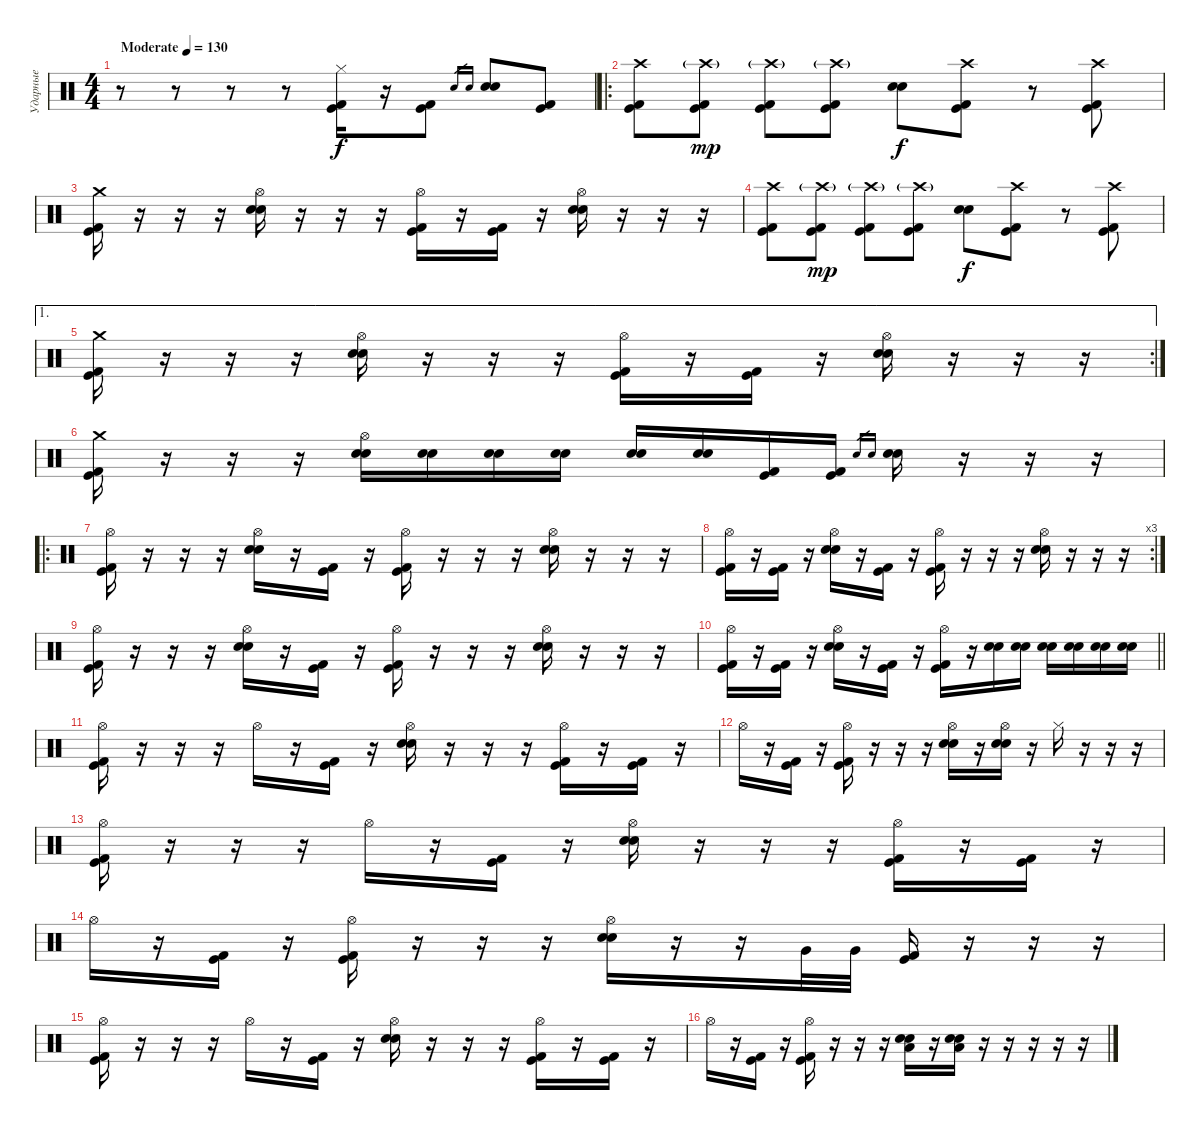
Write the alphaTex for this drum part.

\track ("Ударные" "Ударные") {instrument percussion}
\staff {score}
\articulation defaults
\ts (4 4)
\tempo (130 "Moderate")
\clef neutral
\ks c
r.8{dy f} r.8 r.8 r.8 ("Hi-Hat (closed)" "Kick (hit) 2" "Kick (hit)").16 r.16 ("Kick (hit)" "Kick (hit) 2").8 "Snare (hit) 2".16{gr} "Electric Snare (hit)".16{gr} ("Snare (hit) 2" "Electric Snare (hit)").8 ("Kick (hit)" "Kick (hit) 2").8 |
\ro
("Crash high (hit)" "Kick (hit)" "Kick (hit) 2").8 ("Crash high (hit)"{g} "Kick (hit)" "Kick (hit) 2").8{dy mp} ("Crash high (hit)"{g} "Kick (hit)" "Kick (hit) 2").8 ("Crash high (hit)"{g} "Kick (hit)" "Kick (hit) 2").8 ("Snare (hit) 2" "Electric Snare (hit)").8{dy f} ("Crash high (hit)" "Kick (hit)" "Kick (hit) 2").8 r.8 ("Crash high (hit)" "Kick (hit)" "Kick (hit) 2").8 |
("Crash medium (hit)" "Kick (hit)" "Kick (hit) 2").16 r.16 r.16 r.16 ("Hi-Hat (open)" "Snare (hit) 2" "Electric Snare (hit)").16 r.16 r.16 r.16 ("Hi-Hat (open)" "Kick (hit)" "Kick (hit) 2").16 r.16 ("Kick (hit)" "Kick (hit) 2").16 r.16 ("Hi-Hat (open)" "Electric Snare (hit)" "Snare (hit) 2").16 r.16 r.16 r.16 |
("Crash high (hit)" "Kick (hit)" "Kick (hit) 2").8 ("Crash high (hit)"{g} "Kick (hit)" "Kick (hit) 2").8{dy mp} ("Crash high (hit)"{g} "Kick (hit)" "Kick (hit) 2").8 ("Crash high (hit)"{g} "Kick (hit)" "Kick (hit) 2").8 ("Snare (hit) 2" "Electric Snare (hit)").8{dy f} ("Crash high (hit)" "Kick (hit)" "Kick (hit) 2").8 r.8 ("Crash high (hit)" "Kick (hit)" "Kick (hit) 2").8 |
\ae 1
\rc 2
("Crash medium (hit)" "Kick (hit)" "Kick (hit) 2").16 r.16 r.16 r.16 ("Hi-Hat (open)" "Snare (hit) 2" "Electric Snare (hit)").16 r.16 r.16 r.16 ("Hi-Hat (open)" "Kick (hit)" "Kick (hit) 2").16 r.16 ("Kick (hit)" "Kick (hit) 2").16 r.16 ("Hi-Hat (open)" "Electric Snare (hit)" "Snare (hit) 2").16 r.16 r.16 r.16 |
("Crash medium (hit)" "Kick (hit)" "Kick (hit) 2").16 r.16 r.16 r.16 ("Hi-Hat (open)" "Snare (hit) 2" "Electric Snare (hit)").16 ("Snare (hit) 2" "Electric Snare (hit)").16 ("Snare (hit) 2" "Electric Snare (hit)").16 ("Snare (hit) 2" "Electric Snare (hit)").16 ("Electric Snare (hit)" "Snare (hit) 2").16 ("Electric Snare (hit)" "Snare (hit) 2").16 ("Kick (hit)" "Kick (hit) 2").16 ("Kick (hit) 2" "Kick (hit)").16 "Snare (hit) 2".16{gr} "Electric Snare (hit)".16{gr} ("Snare (hit) 2" "Electric Snare (hit)").16 r.16 r.16 r.16 |
\ro
("Hi-Hat (open)" "Kick (hit)" "Kick (hit) 2").16 r.16 r.16 r.16 ("Hi-Hat (open)" "Snare (hit) 2" "Electric Snare (hit)").16 r.16 ("Kick (hit)" "Kick (hit) 2").16 r.16 ("Hi-Hat (open)" "Kick (hit)" "Kick (hit) 2").16 r.16 r.16 r.16 ("Hi-Hat (open)" "Snare (hit) 2" "Electric Snare (hit)").16 r.16 r.16 r.16 |
\rc 3
("Hi-Hat (open)" "Kick (hit)" "Kick (hit) 2").16 r.16 ("Kick (hit)" "Kick (hit) 2").16 r.16 ("Hi-Hat (open)" "Snare (hit) 2" "Electric Snare (hit)").16 r.16 ("Kick (hit)" "Kick (hit) 2").16 r.16 ("Hi-Hat (open)" "Kick (hit)" "Kick (hit) 2").16 r.16 r.16 r.16 ("Hi-Hat (open)" "Snare (hit) 2" "Electric Snare (hit)").16 r.16 r.16 r.16 |
("Hi-Hat (open)" "Kick (hit)" "Kick (hit) 2").16 r.16 r.16 r.16 ("Hi-Hat (open)" "Snare (hit) 2" "Electric Snare (hit)").16 r.16 ("Kick (hit)" "Kick (hit) 2").16 r.16 ("Hi-Hat (open)" "Kick (hit)" "Kick (hit) 2").16 r.16 r.16 r.16 ("Hi-Hat (open)" "Snare (hit) 2" "Electric Snare (hit)").16 r.16 r.16 r.16 |
\barLineRight lightlight
("Hi-Hat (open)" "Kick (hit)" "Kick (hit) 2").16 r.16 ("Kick (hit)" "Kick (hit) 2").16 r.16 ("Hi-Hat (open)" "Snare (hit) 2" "Electric Snare (hit)").16 r.16 ("Kick (hit)" "Kick (hit) 2").16 r.16 ("Hi-Hat (open)" "Kick (hit)" "Kick (hit) 2").16 r.16 ("Snare (hit) 2" "Electric Snare (hit)").16 ("Electric Snare (hit)" "Snare (hit) 2").16 ("Snare (hit) 2" "Electric Snare (hit)").16 ("Snare (hit) 2" "Electric Snare (hit)").16 ("Electric Snare (hit)" "Snare (hit) 2").16 ("Snare (hit) 2" "Electric Snare (hit)").16 |
("Hi-Hat (open)" "Kick (hit)" "Kick (hit) 2").16 r.16 r.16 r.16 "Hi-Hat (open)".16 r.16 ("Kick (hit)" "Kick (hit) 2").16 r.16 ("Hi-Hat (open)" "Snare (hit) 2" "Electric Snare (hit)").16 r.16 r.16 r.16 ("Hi-Hat (open)" "Kick (hit)" "Kick (hit) 2").16 r.16 ("Kick (hit)" "Kick (hit) 2").16 r.16 |
"Hi-Hat (open)".16 r.16 ("Kick (hit)" "Kick (hit) 2").16 r.16 ("Hi-Hat (open)" "Kick (hit)" "Kick (hit) 2").16 r.16 r.16 r.16 ("Hi-Hat (open)" "Snare (hit) 2" "Electric Snare (hit)").16 r.16 ("Hi-Hat (open)" "Snare (hit) 2" "Electric Snare (hit)").16 r.16 "Hi-Hat (closed)".16 r.16 r.16 r.16 |
("Hi-Hat (open)" "Kick (hit)" "Kick (hit) 2").16 r.16 r.16 r.16 "Hi-Hat (open)".16 r.16 ("Kick (hit)" "Kick (hit) 2").16 r.16 ("Hi-Hat (open)" "Snare (hit) 2" "Electric Snare (hit)").16 r.16 r.16 r.16 ("Hi-Hat (open)" "Kick (hit)" "Kick (hit) 2").16 r.16 ("Kick (hit)" "Kick (hit) 2").16 r.16 |
"Hi-Hat (open)".16 r.16 ("Kick (hit)" "Kick (hit) 2").16 r.16 ("Hi-Hat (open)" "Kick (hit)" "Kick (hit) 2").16 r.16 r.16 r.16 ("Hi-Hat (open)" "Snare (hit) 2" "Electric Snare (hit)").16 r.16 r.16 "Very Low Tom (hit)".32 "Very Low Tom (hit)".32 ("Kick (hit)" "Kick (hit) 2").16 r.16 r.16 r.16 |
("Hi-Hat (open)" "Kick (hit)" "Kick (hit) 2").16 r.16 r.16 r.16 "Hi-Hat (open)".16 r.16 ("Kick (hit)" "Kick (hit) 2").16 r.16 ("Hi-Hat (open)" "Snare (hit) 2" "Electric Snare (hit)").16 r.16 r.16 r.16 ("Hi-Hat (open)" "Kick (hit)" "Kick (hit) 2").16 r.16 ("Kick (hit)" "Kick (hit) 2").16 r.16 |
"Hi-Hat (open)".16 r.16 ("Kick (hit)" "Kick (hit) 2").16 r.16 ("Hi-Hat (open)" "Kick (hit)" "Kick (hit) 2").16 r.16 r.16 r.16 ("Low Floor Tom (hit)" "Snare (hit) 2" "Electric Snare (hit)").16 r.16 ("Low Floor Tom (hit)" "Snare (hit) 2" "Electric Snare (hit)").16 r.16 r.16 r.16 r.16 r.16
